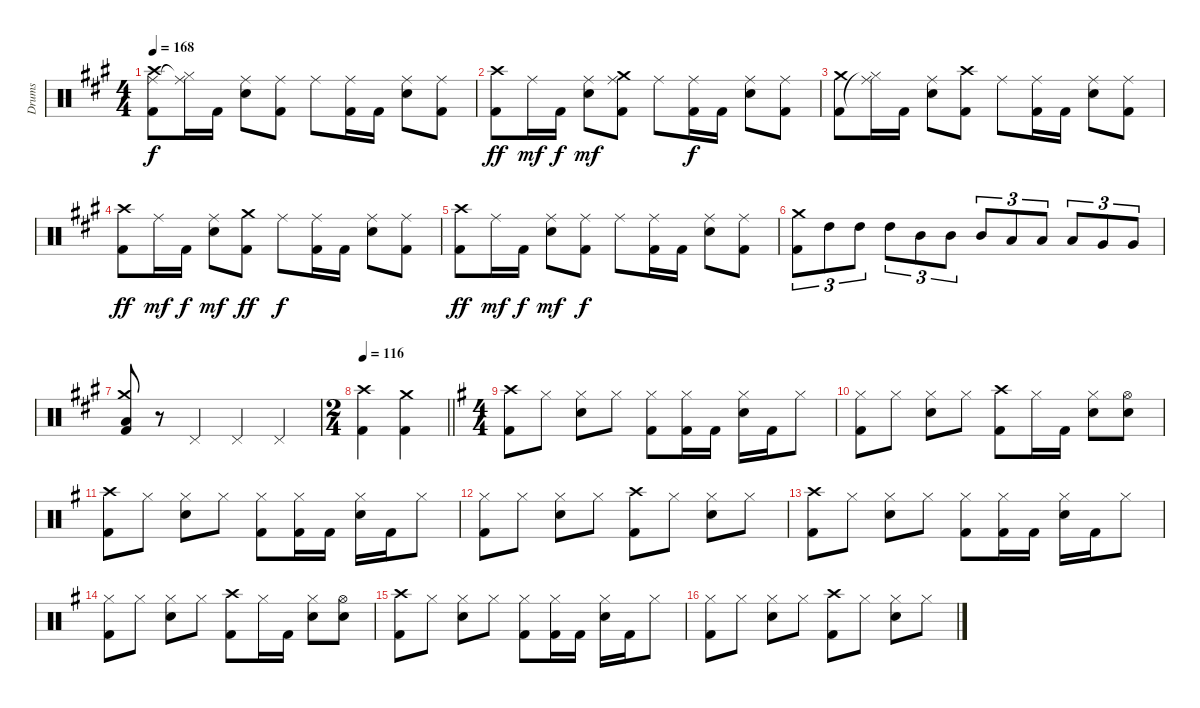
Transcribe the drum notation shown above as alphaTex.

\track ("Drums" "Drums") {instrument percussion}
\staff {score}
\articulation defaults
\ts (4 4)
\tempo 168
\clef neutral
\ks a
("Crash high (hit)" "Ride (middle)" "Kick (hit) 2").8{dy f} ("Ride (middle)" "Hi-Hat (closed)"{t}).16 "Kick (hit) 2".16 ("Ride (middle)" "Snare (hit) 2").8 ("Ride (middle)" "Kick (hit) 2").8 "Ride (middle)".8 ("Ride (middle)" "Kick (hit) 2").16 "Kick (hit) 2".16 ("Ride (middle)" "Snare (hit) 2").8 ("Ride (middle)" "Kick (hit) 2").8 |
("Crash high (hit)" "Kick (hit) 2").8{dy ff} "Ride (middle)".16{dy mf} "Kick (hit) 2".16{dy f} ("Ride (middle)" "Snare (hit) 2").8{dy mf} ("Crash medium (hit)" "Ride (middle)" "Kick (hit) 2").8 "Ride (middle)".8 ("Ride (middle)" "Kick (hit) 2").16{dy f} "Kick (hit) 2".16 ("Ride (middle)" "Snare (hit) 2").8 ("Ride (middle)" "Kick (hit) 2").8 |
("Crash medium (hit)" "Kick (hit) 2").8 ("Ride (middle)" "Hi-Hat (closed)"{t}).16 "Kick (hit) 2".16 ("Ride (middle)" "Snare (hit) 2").8 ("Crash high (hit)" "Kick (hit) 2").8 "Ride (middle)".8 ("Ride (middle)" "Kick (hit) 2").16 "Kick (hit) 2".16 ("Ride (middle)" "Snare (hit) 2").8 ("Ride (middle)" "Kick (hit) 2").8 |
("Crash high (hit)" "Kick (hit) 2").8{dy ff} "Ride (middle)".16{dy mf} "Kick (hit) 2".16{dy f} ("Ride (middle)" "Snare (hit) 2").8{dy mf} ("Crash medium (hit)" "Kick (hit) 2").8{dy ff} "Ride (middle)".8{dy f} ("Ride (middle)" "Kick (hit) 2").16 "Kick (hit) 2".16 ("Ride (middle)" "Snare (hit) 2").8 ("Ride (middle)" "Kick (hit) 2").8 |
("Crash high (hit)" "Kick (hit) 2").8{dy ff} "Ride (middle)".16{dy mf} "Kick (hit) 2".16{dy f} ("Ride (middle)" "Snare (hit) 2").8{dy mf} ("Ride (middle)" "Kick (hit) 2").8{dy f} "Ride (middle)".8 ("Ride (middle)" "Kick (hit) 2").16 "Kick (hit) 2".16 ("Ride (middle)" "Snare (hit) 2").8 ("Ride (middle)" "Kick (hit) 2").8 |
("Crash medium (hit)" "Kick (hit) 2").8{tu (3 2)} "High Tom (hit)".8{tu (3 2)} "High Tom (hit)".8{tu (3 2)} "High Tom (hit)".8{tu (3 2)} "Mid Tom (hit)".8{tu (3 2)} "Mid Tom (hit)".8{tu (3 2)} "Mid Tom (hit)".8{tu (3 2)} "Low Tom (hit)".8{tu (3 2)} "Low Tom (hit)".8{tu (3 2)} "Low Tom (hit)".8{tu (3 2)} "Very Low Tom (hit)".8{tu (3 2)} "Very Low Tom (hit)".8{tu (3 2)} |
("Crash medium (hit)" "Low Floor Tom (hit)" "Kick (hit) 2").8 r.8 "Pedal Hi-Hat (hit)".4 "Pedal Hi-Hat (hit)".4 "Pedal Hi-Hat (hit)".4 |
\ts (2 4)
\tempo 116
\barLineRight lightlight
("Crash high (hit)" "Kick (hit) 2").4 ("Crash medium (hit)" "Kick (hit) 2").4 |
\ts (4 4)
\ks g
("Crash high (hit)" "Kick (hit) 2").8 "Hi-Hat (closed)".8 ("Hi-Hat (closed)" "Snare (hit) 2").8 "Hi-Hat (closed)".8 ("Hi-Hat (closed)" "Kick (hit) 2").8 ("Hi-Hat (closed)" "Kick (hit) 2").16 "Kick (hit) 2".16 ("Hi-Hat (closed)" "Snare (hit) 2").16 "Kick (hit) 2".16 "Hi-Hat (closed)".8 |
("Hi-Hat (closed)" "Kick (hit) 2").8 "Hi-Hat (closed)".8 ("Hi-Hat (closed)" "Snare (hit) 2").8 "Hi-Hat (closed)".8 ("Crash high (hit)" "Kick (hit) 2").8 "Hi-Hat (closed)".16 "Kick (hit) 2".16 ("Hi-Hat (closed)" "Snare (hit) 2").8 ("Hi-Hat (open)" "Snare (hit) 2").8 |
("Crash high (hit)" "Kick (hit) 2").8 "Hi-Hat (closed)".8 ("Hi-Hat (closed)" "Snare (hit) 2").8 "Hi-Hat (closed)".8 ("Hi-Hat (closed)" "Kick (hit) 2").8 ("Hi-Hat (closed)" "Kick (hit) 2").16 "Kick (hit) 2".16 ("Hi-Hat (closed)" "Snare (hit) 2").16 "Kick (hit) 2".16 "Hi-Hat (closed)".8 |
("Hi-Hat (closed)" "Kick (hit) 2").8 "Hi-Hat (closed)".8 ("Hi-Hat (closed)" "Snare (hit) 2").8 "Hi-Hat (closed)".8 ("Crash high (hit)" "Kick (hit) 2").8 "Hi-Hat (closed)".8 ("Hi-Hat (closed)" "Snare (hit) 2").8 "Hi-Hat (closed)".8 |
("Crash high (hit)" "Kick (hit) 2").8 "Hi-Hat (closed)".8 ("Hi-Hat (closed)" "Snare (hit) 2").8 "Hi-Hat (closed)".8 ("Hi-Hat (closed)" "Kick (hit) 2").8 ("Hi-Hat (closed)" "Kick (hit) 2").16 "Kick (hit) 2".16 ("Hi-Hat (closed)" "Snare (hit) 2").16 "Kick (hit) 2".16 "Hi-Hat (closed)".8 |
("Hi-Hat (closed)" "Kick (hit) 2").8 "Hi-Hat (closed)".8 ("Hi-Hat (closed)" "Snare (hit) 2").8 "Hi-Hat (closed)".8 ("Crash high (hit)" "Kick (hit) 2").8 "Hi-Hat (closed)".16 "Kick (hit) 2".16 ("Hi-Hat (closed)" "Snare (hit) 2").8 ("Hi-Hat (open)" "Snare (hit) 2").8 |
("Crash high (hit)" "Kick (hit) 2").8 "Hi-Hat (closed)".8 ("Hi-Hat (closed)" "Snare (hit) 2").8 "Hi-Hat (closed)".8 ("Hi-Hat (closed)" "Kick (hit) 2").8 ("Hi-Hat (closed)" "Kick (hit) 2").16 "Kick (hit) 2".16 ("Hi-Hat (closed)" "Snare (hit) 2").16 "Kick (hit) 2".16 "Hi-Hat (closed)".8 |
("Hi-Hat (closed)" "Kick (hit) 2").8 "Hi-Hat (closed)".8 ("Hi-Hat (closed)" "Snare (hit) 2").8 "Hi-Hat (closed)".8 ("Crash high (hit)" "Kick (hit) 2").8 "Hi-Hat (closed)".8 ("Hi-Hat (closed)" "Snare (hit) 2").8 "Hi-Hat (closed)".8
